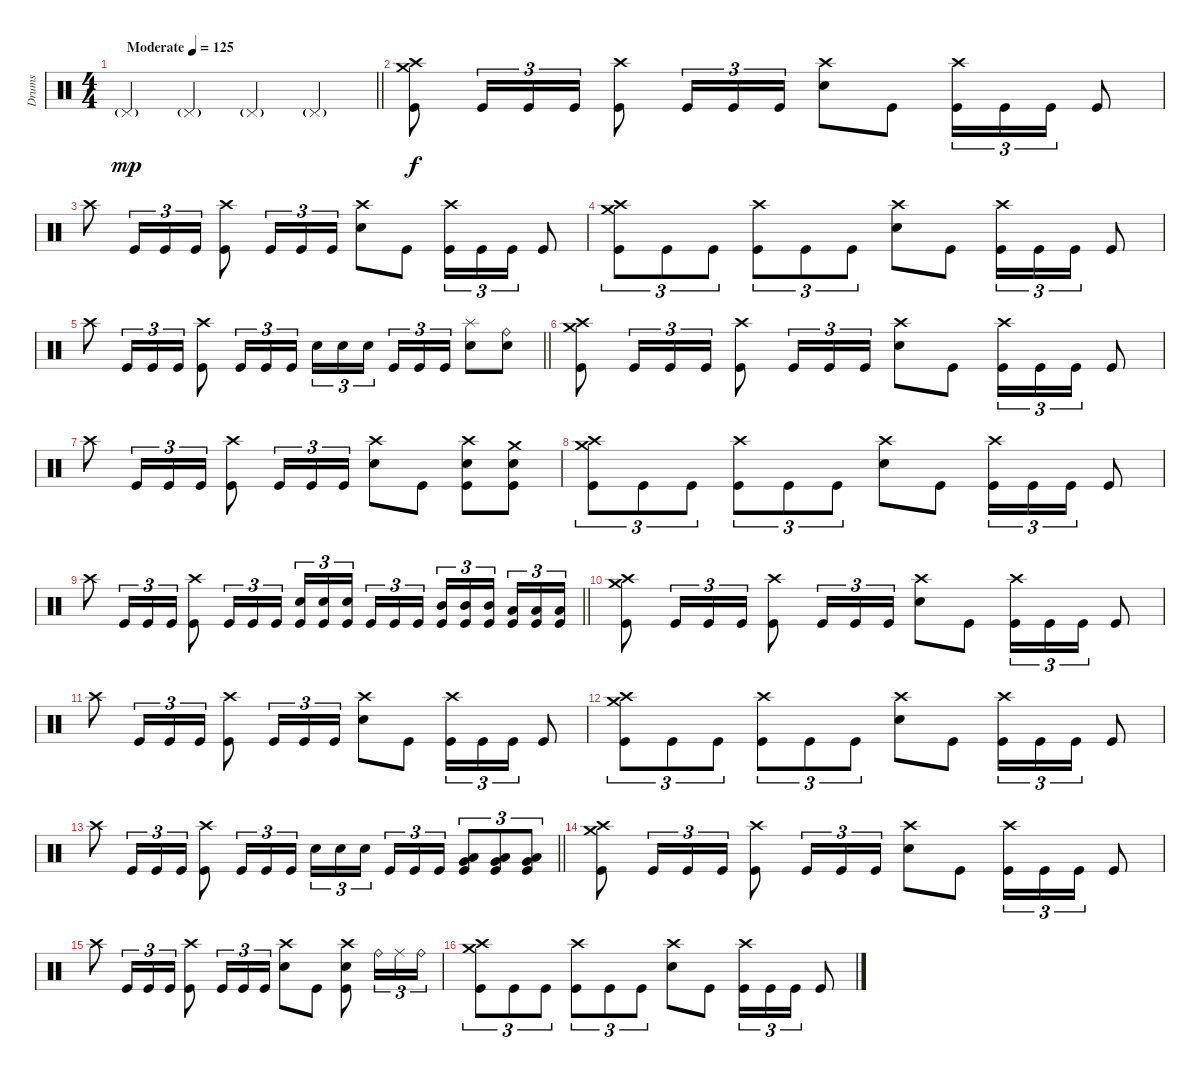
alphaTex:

\track ("Drums" "Drums") {instrument percussion}
\staff
\articulation defaults
\ts (4 4)
\tempo (125 "Moderate")
\clef neutral
\barLineRight lightlight
\ks c "Pedal Hi-Hat (hit)"{g}.4{dy mp} "Pedal Hi-Hat (hit)"{g}.4 "Pedal Hi-Hat (hit)"{g}.4 "Pedal Hi-Hat (hit)"{g}.4
|
("Crash high (hit)" "Crash medium (hit)" "Kick (hit)").8{dy f} "Kick (hit)".16{tu (3 2)} "Kick (hit)".16{tu (3 2)} "Kick (hit)".16{tu (3 2)} ("Crash high (hit)" "Kick (hit)").8 "Kick (hit)".16{tu (3 2)} "Kick (hit)".16{tu (3 2)} "Kick (hit)".16{tu (3 2)} ("Crash high (hit)" "Electric Snare (hit)").8 "Kick (hit)".8 ("Crash high (hit)" "Kick (hit)").16{tu (3 2)} "Kick (hit)".16{tu (3 2)} "Kick (hit)".16{tu (3 2)} "Kick (hit)".8 |
"Crash high (hit)".8 "Kick (hit)".16{tu (3 2)} "Kick (hit)".16{tu (3 2)} "Kick (hit)".16{tu (3 2)} ("Crash high (hit)" "Kick (hit)").8 "Kick (hit)".16{tu (3 2)} "Kick (hit)".16{tu (3 2)} "Kick (hit)".16{tu (3 2)} ("Crash high (hit)" "Electric Snare (hit)").8 "Kick (hit)".8 ("Crash high (hit)" "Kick (hit)").16{tu (3 2)} "Kick (hit)".16{tu (3 2)} "Kick (hit)".16{tu (3 2)} "Kick (hit)".8 |
("Crash high (hit)" "Crash medium (hit)" "Kick (hit)").8{tu (3 2)} "Kick (hit)".8{tu (3 2)} "Kick (hit)".8{tu (3 2)} ("Crash high (hit)" "Kick (hit)").8{tu (3 2)} "Kick (hit)".8{tu (3 2)} "Kick (hit)".8{tu (3 2)} ("Crash high (hit)" "Electric Snare (hit)").8 "Kick (hit)".8 ("Crash high (hit)" "Kick (hit)").16{tu (3 2)} "Kick (hit)".16{tu (3 2)} "Kick (hit)".16{tu (3 2)} "Kick (hit)".8 |
\barLineRight lightlight "Crash high (hit)".8 "Kick (hit)".16{tu (3 2)} "Kick (hit)".16{tu (3 2)} "Kick (hit)".16{tu (3 2)}
("Crash high (hit)" "Kick (hit)").8 "Kick (hit)".16{tu (3 2)} "Kick (hit)".16{tu (3 2)} "Kick (hit)".16{tu (3 2)} "Electric Snare (hit)".16{tu (3 2)} "Electric Snare (hit)".16{tu (3 2)} "Electric Snare (hit)".16{tu (3 2) beam splitsecondary} "Kick (hit)".16{tu (3 2)} "Kick (hit)".16{tu (3 2)} "Kick (hit)".16{tu (3 2)} ("Splash (hit)" "Electric Snare (hit)").8 ("Ride (bell)" "Electric Snare (hit)").8 |
("Crash high (hit)" "Crash medium (hit)" "Kick (hit)").8 "Kick (hit)".16{tu (3 2)} "Kick (hit)".16{tu (3 2)} "Kick (hit)".16{tu (3 2)} ("Crash high (hit)" "Kick (hit)").8 "Kick (hit)".16{tu (3 2)} "Kick (hit)".16{tu (3 2)} "Kick (hit)".16{tu (3 2)} ("Crash high (hit)" "Electric Snare (hit)").8 "Kick (hit)".8 ("Crash high (hit)" "Kick (hit)").16{tu (3 2)} "Kick (hit)".16{tu (3 2)} "Kick (hit)".16{tu (3 2)} "Kick (hit)".8 |
"Crash high (hit)".8 "Kick (hit)".16{tu (3 2)} "Kick (hit)".16{tu (3 2)} "Kick (hit)".16{tu (3 2)} ("Crash high (hit)" "Kick (hit)").8 "Kick (hit)".16{tu (3 2)} "Kick (hit)".16{tu (3 2)} "Kick (hit)".16{tu (3 2)} ("Crash high (hit)" "Electric Snare (hit)").8 "Kick (hit)".8 ("Crash high (hit)" "Electric Snare (hit)" "Kick (hit)").8 ("Crash medium (hit)" "Electric Snare (hit)" "Kick (hit)").8 |
("Crash high (hit)" "Crash medium (hit)" "Kick (hit)").8{tu (3 2)} "Kick (hit)".8{tu (3 2)} "Kick (hit)".8{tu (3 2)} ("Crash high (hit)" "Kick (hit)").8{tu (3 2)} "Kick (hit)".8{tu (3 2)} "Kick (hit)".8{tu (3 2)} ("Crash high (hit)" "Electric Snare (hit)").8 "Kick (hit)".8 ("Crash high (hit)" "Kick (hit)").16{tu (3 2)} "Kick (hit)".16{tu (3 2)} "Kick (hit)".16{tu (3 2)} "Kick (hit)".8 |
\barLineRight lightlight "Crash high (hit)".8 "Kick (hit)".16{tu (3 2)} "Kick (hit)".16{tu (3 2)} "Kick (hit)".16{tu (3 2)}
("Crash high (hit)" "Kick (hit)").8 "Kick (hit)".16{tu (3 2)} "Kick (hit)".16{tu (3 2)} "Kick (hit)".16{tu (3 2)} ("Electric Snare (hit)" "Kick (hit)").16{tu (3 2)} ("Electric Snare (hit)" "Kick (hit)").16{tu (3 2)} ("Electric Snare (hit)" "Kick (hit)").16{tu (3 2) beam splitsecondary} "Kick (hit)".16{tu (3 2)} "Kick (hit)".16{tu (3 2)} "Kick (hit)".16{tu (3 2)} ("Mid Tom (hit)" "Kick (hit)").16{tu (3 2)} ("Mid Tom (hit)" "Kick (hit)").16{tu (3 2)} ("Mid Tom (hit)" "Kick (hit)").16{tu (3 2) beam splitsecondary} ("Low Tom (hit)" "Kick (hit)").16{tu (3 2)} ("Low Tom (hit)" "Kick (hit)").16{tu (3 2)} ("Low Tom (hit)" "Kick (hit)").16{tu (3 2)} |
("Crash high (hit)" "Crash medium (hit)" "Kick (hit)").8 "Kick (hit)".16{tu (3 2)} "Kick (hit)".16{tu (3 2)} "Kick (hit)".16{tu (3 2)} ("Crash high (hit)" "Kick (hit)").8 "Kick (hit)".16{tu (3 2)} "Kick (hit)".16{tu (3 2)} "Kick (hit)".16{tu (3 2)} ("Crash high (hit)" "Electric Snare (hit)").8 "Kick (hit)".8 ("Crash high (hit)" "Kick (hit)").16{tu (3 2)} "Kick (hit)".16{tu (3 2)} "Kick (hit)".16{tu (3 2)} "Kick (hit)".8 |
"Crash high (hit)".8 "Kick (hit)".16{tu (3 2)} "Kick (hit)".16{tu (3 2)} "Kick (hit)".16{tu (3 2)} ("Crash high (hit)" "Kick (hit)").8 "Kick (hit)".16{tu (3 2)} "Kick (hit)".16{tu (3 2)} "Kick (hit)".16{tu (3 2)} ("Crash high (hit)" "Electric Snare (hit)").8 "Kick (hit)".8 ("Crash high (hit)" "Kick (hit)").16{tu (3 2)} "Kick (hit)".16{tu (3 2)} "Kick (hit)".16{tu (3 2)} "Kick (hit)".8 |
("Crash high (hit)" "Crash medium (hit)" "Kick (hit)").8{tu (3 2)} "Kick (hit)".8{tu (3 2)} "Kick (hit)".8{tu (3 2)} ("Crash high (hit)" "Kick (hit)").8{tu (3 2)} "Kick (hit)".8{tu (3 2)} "Kick (hit)".8{tu (3 2)} ("Crash high (hit)" "Electric Snare (hit)").8 "Kick (hit)".8 ("Crash high (hit)" "Kick (hit)").16{tu (3 2)} "Kick (hit)".16{tu (3 2)} "Kick (hit)".16{tu (3 2)} "Kick (hit)".8 |
\barLineRight lightlight "Crash high (hit)".8 "Kick (hit)".16{tu (3 2)} "Kick (hit)".16{tu (3 2)} "Kick (hit)".16{tu (3 2)}
("Crash high (hit)" "Kick (hit)").8 "Kick (hit)".16{tu (3 2)} "Kick (hit)".16{tu (3 2)} "Kick (hit)".16{tu (3 2)} "Electric Snare (hit)".16{tu (3 2)} "Electric Snare (hit)".16{tu (3 2)} "Electric Snare (hit)".16{tu (3 2) beam splitsecondary} "Kick (hit)".16{tu (3 2)} "Kick (hit)".16{tu (3 2)} "Kick (hit)".16{tu (3 2)} ("Very Low Tom (hit)" "Low Floor Tom (hit)" "Kick (hit)").8{tu (3 2)} ("Very Low Tom (hit)" "Low Floor Tom (hit)" "Kick (hit)").8{tu (3 2)} ("Very Low Tom (hit)" "Low Floor Tom (hit)" "Kick (hit)").8{tu (3 2)} |
("Crash high (hit)" "Crash medium (hit)" "Kick (hit)").8 "Kick (hit)".16{tu (3 2)} "Kick (hit)".16{tu (3 2)} "Kick (hit)".16{tu (3 2)} ("Crash high (hit)" "Kick (hit)").8 "Kick (hit)".16{tu (3 2)} "Kick (hit)".16{tu (3 2)} "Kick (hit)".16{tu (3 2)} ("Crash high (hit)" "Electric Snare (hit)").8 "Kick (hit)".8 ("Crash high (hit)" "Kick (hit)").16{tu (3 2)} "Kick (hit)".16{tu (3 2)} "Kick (hit)".16{tu (3 2)} "Kick (hit)".8 |
"Crash high (hit)".8 "Kick (hit)".16{tu (3 2)} "Kick (hit)".16{tu (3 2)} "Kick (hit)".16{tu (3 2)} ("Crash high (hit)" "Kick (hit)").8 "Kick (hit)".16{tu (3 2)} "Kick (hit)".16{tu (3 2)} "Kick (hit)".16{tu (3 2)} ("Crash high (hit)" "Electric Snare (hit)").8 "Kick (hit)".8 ("Crash high (hit)" "Electric Snare (hit)" "Kick (hit)").8 "Ride (bell)".16{tu (3 2)} "Ride (middle)".16{tu (3 2)} "Ride (bell)".16{tu (3 2)} |
("Crash high (hit)" "Crash medium (hit)" "Kick (hit)").8{tu (3 2)} "Kick (hit)".8{tu (3 2)} "Kick (hit)".8{tu (3 2)} ("Crash high (hit)" "Kick (hit)").8{tu (3 2)} "Kick (hit)".8{tu (3 2)} "Kick (hit)".8{tu (3 2)} ("Crash high (hit)" "Electric Snare (hit)").8 "Kick (hit)".8 ("Crash high (hit)" "Kick (hit)").16{tu (3 2)} "Kick (hit)".16{tu (3 2)} "Kick (hit)".16{tu (3 2)} "Kick (hit)".8
